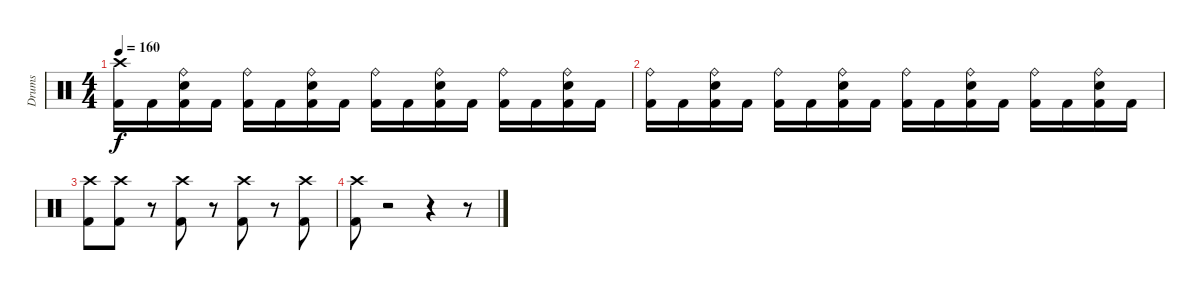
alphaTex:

\track ("Drums" "Drums") {instrument percussion}
\staff {score}
\articulation defaults
\ts (4 4)
\tempo 160
\clef neutral
\ks c
("Crash high (hit)" "Kick (hit) 2").16{dy f} "Kick (hit) 2".16 ("Ride (bell)" "Snare (hit) 2" "Kick (hit) 2").16 "Kick (hit) 2".16 ("Ride (bell)" "Kick (hit) 2").16 "Kick (hit) 2".16 ("Ride (bell)" "Snare (hit) 2" "Kick (hit) 2").16 "Kick (hit) 2".16 ("Ride (bell)" "Kick (hit) 2").16 "Kick (hit) 2".16 ("Ride (bell)" "Snare (hit) 2" "Kick (hit) 2").16 "Kick (hit) 2".16 ("Ride (bell)" "Kick (hit) 2").16 "Kick (hit) 2".16 ("Ride (bell)" "Snare (hit) 2" "Kick (hit) 2").16 "Kick (hit) 2".16 |
("Ride (bell)" "Kick (hit) 2").16 "Kick (hit) 2".16 ("Ride (bell)" "Snare (hit) 2" "Kick (hit) 2").16 "Kick (hit) 2".16 ("Ride (bell)" "Kick (hit) 2").16 "Kick (hit) 2".16 ("Ride (bell)" "Snare (hit) 2" "Kick (hit) 2").16 "Kick (hit) 2".16 ("Ride (bell)" "Kick (hit) 2").16 "Kick (hit) 2".16 ("Ride (bell)" "Snare (hit) 2" "Kick (hit) 2").16 "Kick (hit) 2".16 ("Ride (bell)" "Kick (hit) 2").16 "Kick (hit) 2".16 ("Ride (bell)" "Snare (hit) 2" "Kick (hit) 2").16 "Kick (hit) 2".16 |
("Crash high (hit)" "Kick (hit) 2").8 ("Crash high (hit)" "Kick (hit) 2").8 r.8{volume 0} ("Crash high (hit)" "Kick (hit) 2").8{volume 16} r.8{volume 0} ("Crash high (hit)" "Kick (hit) 2").8{volume 16} r.8{volume 0} ("Crash high (hit)" "Kick (hit) 2").8{volume 16} |
("Crash high (hit)" "Kick (hit) 2").8 r.2{volume 0} r.4 r.8
